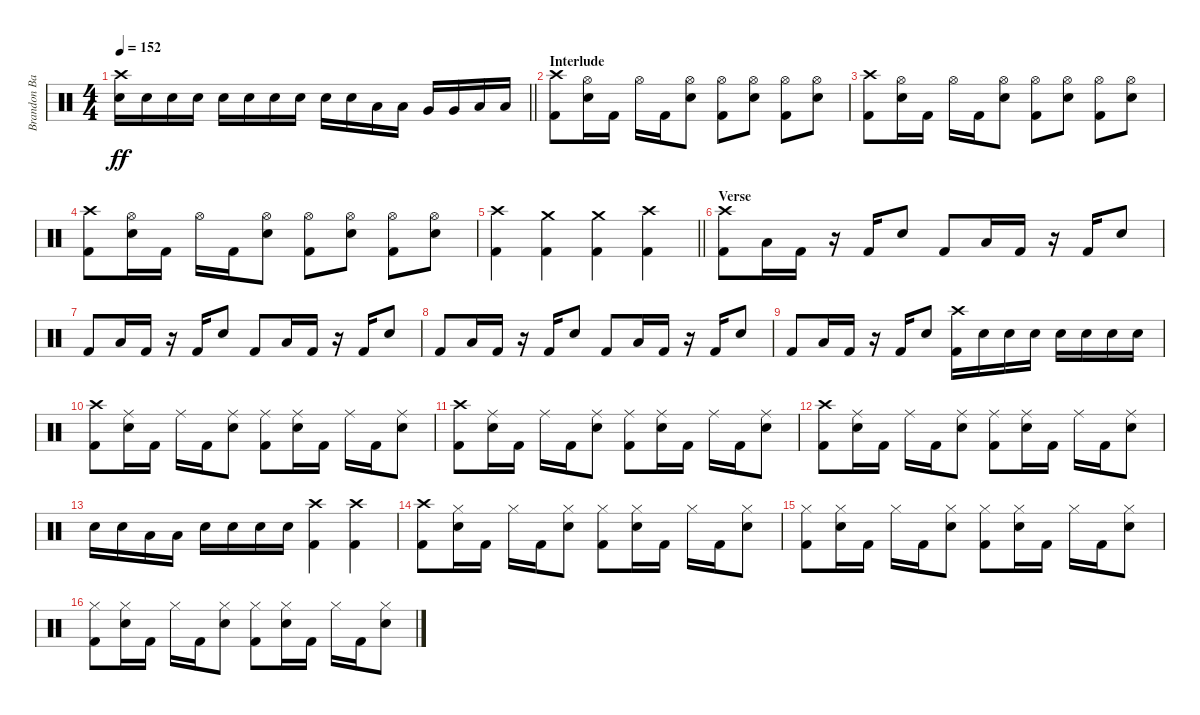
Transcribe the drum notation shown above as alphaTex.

\track ("Brandon Barnes - Drums" "Brandon Ba") {instrument percussion}
\staff {score}
\articulation defaults
\ts (4 4)
\tempo 152
\clef neutral
\barLineRight lightlight
\ks c
("Snare (hit) 2" "Crash high (hit)").16{dy ff} "Snare (hit) 2".16 "Snare (hit) 2".16 "Snare (hit) 2".16 "Snare (hit) 2".16 "Snare (hit) 2".16 "Snare (hit) 2".16 "Snare (hit) 2".16 "Snare (hit) 2".16 "Snare (hit) 2".16 "Low Tom (hit)".16 "Low Tom (hit)".16 "Very Low Tom (hit)".16 "Very Low Tom (hit)".16 "Low Floor Tom (hit)".16 "Low Floor Tom (hit)".16 |
\section ("" "Interlude")
("Crash high (hit)" "Kick (hit) 2").8 ("Snare (hit) 2" "Hi-Hat (open)").16 "Kick (hit) 2".16 "Hi-Hat (open)".16 "Kick (hit) 2".16 ("Snare (hit) 2" "Hi-Hat (open)").8 ("Hi-Hat (open)" "Kick (hit) 2").8 ("Snare (hit) 2" "Hi-Hat (open)").8 ("Hi-Hat (open)" "Kick (hit) 2").8 ("Snare (hit) 2" "Hi-Hat (open)").8 |
("Crash high (hit)" "Kick (hit) 2").8 ("Snare (hit) 2" "Hi-Hat (open)").16 "Kick (hit) 2".16 "Hi-Hat (open)".16 "Kick (hit) 2".16 ("Snare (hit) 2" "Hi-Hat (open)").8 ("Hi-Hat (open)" "Kick (hit) 2").8 ("Snare (hit) 2" "Hi-Hat (open)").8 ("Hi-Hat (open)" "Kick (hit) 2").8 ("Snare (hit) 2" "Hi-Hat (open)").8 |
("Crash high (hit)" "Kick (hit) 2").8 ("Snare (hit) 2" "Hi-Hat (open)").16 "Kick (hit) 2".16 "Hi-Hat (open)".16 "Kick (hit) 2".16 ("Snare (hit) 2" "Hi-Hat (open)").8 ("Hi-Hat (open)" "Kick (hit) 2").8 ("Snare (hit) 2" "Hi-Hat (open)").8 ("Hi-Hat (open)" "Kick (hit) 2").8 ("Snare (hit) 2" "Hi-Hat (open)").8 |
\barLineRight lightlight
("Crash high (hit)" "Kick (hit) 2").4 ("Crash medium (hit)" "Kick (hit) 2").4 ("Crash medium (hit)" "Kick (hit) 2").4 ("Crash high (hit)" "Kick (hit) 2").4 |
\section ("" "Verse")
("Crash high (hit)" "Kick (hit) 2").8 "Low Tom (hit)".16 "Kick (hit) 2".16 r.16 "Kick (hit) 2".16 "Snare (hit) 2".8 "Kick (hit) 2".8 "Low Tom (hit)".16 "Kick (hit) 2".16 r.16 "Kick (hit) 2".16 "Snare (hit) 2".8 |
"Kick (hit) 2".8 "Low Tom (hit)".16 "Kick (hit) 2".16 r.16 "Kick (hit) 2".16 "Snare (hit) 2".8 "Kick (hit) 2".8 "Low Tom (hit)".16 "Kick (hit) 2".16 r.16 "Kick (hit) 2".16 "Snare (hit) 2".8 |
"Kick (hit) 2".8 "Low Tom (hit)".16 "Kick (hit) 2".16 r.16 "Kick (hit) 2".16 "Snare (hit) 2".8 "Kick (hit) 2".8 "Low Tom (hit)".16 "Kick (hit) 2".16 r.16 "Kick (hit) 2".16 "Snare (hit) 2".8 |
"Kick (hit) 2".8 "Low Tom (hit)".16 "Kick (hit) 2".16 r.16 "Kick (hit) 2".16 "Snare (hit) 2".8 ("Crash high (hit)" "Kick (hit) 2").16 "Snare (hit) 2".16 "Snare (hit) 2".16 "Snare (hit) 2".16 "Snare (hit) 2".16 "Snare (hit) 2".16 "Snare (hit) 2".16 "Snare (hit) 2".16 |
("Crash high (hit)" "Kick (hit) 2").8 ("Snare (hit) 2" "Ride (middle)").16 "Kick (hit) 2".16 "Ride (middle)".16 "Kick (hit) 2".16 ("Snare (hit) 2" "Ride (middle)").8 ("Ride (middle)" "Kick (hit) 2").8 ("Snare (hit) 2" "Ride (middle)").16 "Kick (hit) 2".16 "Ride (middle)".16 "Kick (hit) 2".16 ("Snare (hit) 2" "Ride (middle)").8 |
("Crash high (hit)" "Kick (hit) 2").8 ("Snare (hit) 2" "Ride (middle)").16 "Kick (hit) 2".16 "Ride (middle)".16 "Kick (hit) 2".16 ("Snare (hit) 2" "Ride (middle)").8 ("Ride (middle)" "Kick (hit) 2").8 ("Snare (hit) 2" "Ride (middle)").16 "Kick (hit) 2".16 "Ride (middle)".16 "Kick (hit) 2".16 ("Snare (hit) 2" "Ride (middle)").8 |
("Crash high (hit)" "Kick (hit) 2").8 ("Snare (hit) 2" "Ride (middle)").16 "Kick (hit) 2".16 "Ride (middle)".16 "Kick (hit) 2".16 ("Snare (hit) 2" "Ride (middle)").8 ("Ride (middle)" "Kick (hit) 2").8 ("Snare (hit) 2" "Ride (middle)").16 "Kick (hit) 2".16 "Ride (middle)".16 "Kick (hit) 2".16 ("Snare (hit) 2" "Ride (middle)").8 |
"Snare (hit) 2".16 "Snare (hit) 2".16 "Low Tom (hit)".16 "Low Tom (hit)".16 "Snare (hit) 2".16 "Snare (hit) 2".16 "Snare (hit) 2".16 "Snare (hit) 2".16 ("Crash high (hit)" "Kick (hit) 2").4 ("Crash high (hit)" "Kick (hit) 2").4 |
("Crash high (hit)" "Kick (hit) 2").8 ("Snare (hit) 2" "Hi-Hat (closed)").16 "Kick (hit) 2".16 "Hi-Hat (closed)".16 "Kick (hit) 2".16 ("Snare (hit) 2" "Hi-Hat (closed)").8 ("Hi-Hat (closed)" "Kick (hit) 2").8 ("Snare (hit) 2" "Hi-Hat (closed)").16 "Kick (hit) 2".16 "Hi-Hat (closed)".16 "Kick (hit) 2".16 ("Snare (hit) 2" "Hi-Hat (closed)").8 |
("Hi-Hat (closed)" "Kick (hit) 2").8 ("Snare (hit) 2" "Hi-Hat (closed)").16 "Kick (hit) 2".16 "Hi-Hat (closed)".16 "Kick (hit) 2".16 ("Snare (hit) 2" "Hi-Hat (closed)").8 ("Hi-Hat (closed)" "Kick (hit) 2").8 ("Snare (hit) 2" "Hi-Hat (closed)").16 "Kick (hit) 2".16 "Hi-Hat (closed)".16 "Kick (hit) 2".16 ("Snare (hit) 2" "Hi-Hat (closed)").8 |
("Hi-Hat (closed)" "Kick (hit) 2").8 ("Snare (hit) 2" "Hi-Hat (closed)").16 "Kick (hit) 2".16 "Hi-Hat (closed)".16 "Kick (hit) 2".16 ("Snare (hit) 2" "Hi-Hat (closed)").8 ("Hi-Hat (closed)" "Kick (hit) 2").8 ("Snare (hit) 2" "Hi-Hat (closed)").16 "Kick (hit) 2".16 "Hi-Hat (closed)".16 "Kick (hit) 2".16 ("Snare (hit) 2" "Hi-Hat (closed)").8
